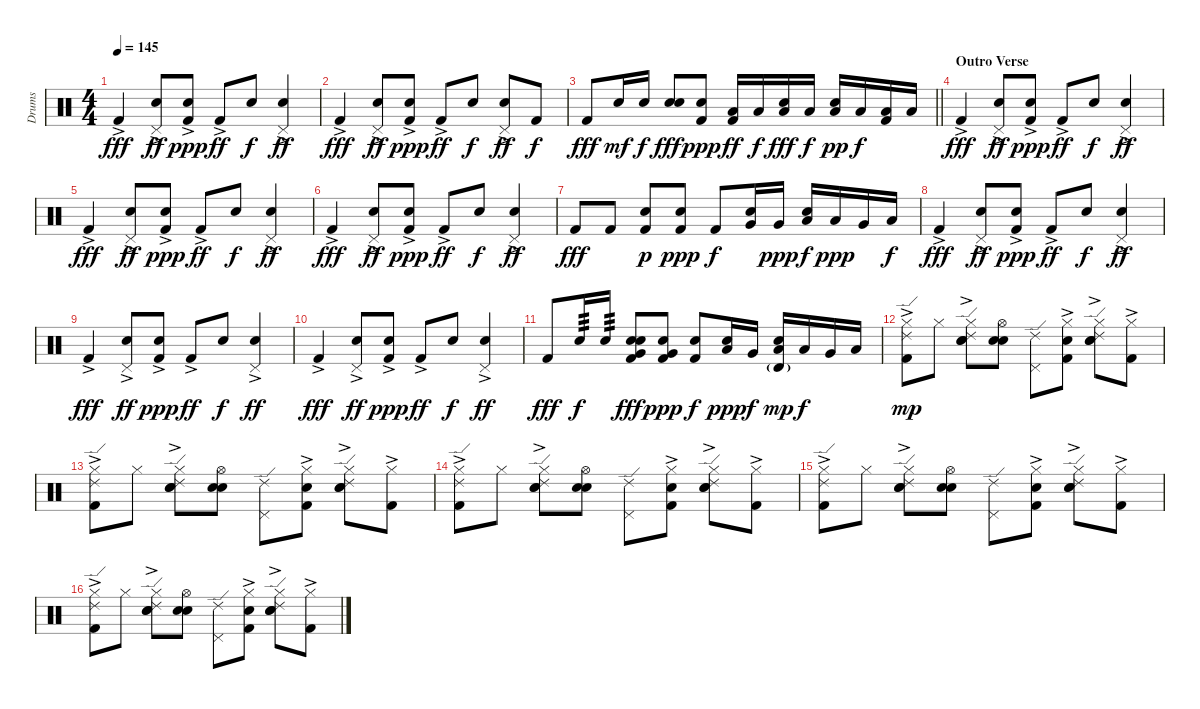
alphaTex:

\track ("Drums" "Drums") {instrument percussion}
\staff {score}
\articulation defaults
\ts (4 4)
\tempo 145
\clef neutral
\ks c "Kick (hit) 2"{ac}.4{dy fff}
("Pedal Hi-Hat (hit)" "Hand Clap (hit)"{ac}).8{dy ff} ("Kick (hit) 2"{ac} "Hand Clap (hit)").8{dy ppp} "Kick (hit) 2"{ac}.8{dy ff} "Hand Clap (hit)".8{dy f} ("Pedal Hi-Hat (hit)" "Hand Clap (hit)"{ac}).4{dy ff} |
"Kick (hit) 2"{ac}.4{dy fff} ("Pedal Hi-Hat (hit)" "Hand Clap (hit)"{ac}).8{dy ff} ("Kick (hit) 2"{ac} "Hand Clap (hit)").8{dy ppp} "Kick (hit) 2"{ac}.8{dy ff} "Hand Clap (hit)".8{dy f} ("Pedal Hi-Hat (hit)" "Hand Clap (hit)"{ac}).8{dy ff} "Kick (hit) 2".8{dy f} |
\barLineRight lightlight "Kick (hit) 2".8{dy fff} "Electric Snare (hit)".16{dy mf} "Electric Snare (hit)".16{dy f}
("Hand Clap (hit)" "Electric Snare (hit)").8{dy fff} ("Kick (hit) 2" "Hand Clap (hit)").8{dy ppp} ("Kick (hit) 2" "Low Tom (hit)").16{dy ff} "Low Tom (hit)".16{dy f} ("Hand Clap (hit)" "Low Tom (hit)").16{dy fff} "Low Tom (hit)".16{dy f} ("Hand Clap (hit)" "Low Tom (hit)").16{dy pp} "Low Tom (hit)".16{dy f} ("Kick (hit) 2" "Low Tom (hit)").16 "Low Tom (hit)".16 |
\section ("" "Outro Verse")
"Kick (hit) 2"{ac}.4{dy fff} ("Pedal Hi-Hat (hit)" "Hand Clap (hit)"{ac}).8{dy ff} ("Kick (hit) 2"{ac} "Hand Clap (hit)").8{dy ppp} "Kick (hit) 2"{ac}.8{dy ff} "Hand Clap (hit)".8{dy f} ("Pedal Hi-Hat (hit)" "Hand Clap (hit)"{ac}).4{dy ff} |
"Kick (hit) 2"{ac}.4{dy fff} ("Pedal Hi-Hat (hit)" "Hand Clap (hit)"{ac}).8{dy ff} ("Kick (hit) 2"{ac} "Hand Clap (hit)").8{dy ppp} "Kick (hit) 2"{ac}.8{dy ff} "Hand Clap (hit)".8{dy f} ("Pedal Hi-Hat (hit)" "Hand Clap (hit)"{ac}).4{dy ff} |
"Kick (hit) 2"{ac}.4{dy fff} ("Pedal Hi-Hat (hit)" "Hand Clap (hit)"{ac}).8{dy ff} ("Kick (hit) 2"{ac} "Hand Clap (hit)").8{dy ppp} "Kick (hit) 2"{ac}.8{dy ff} "Hand Clap (hit)".8{dy f} ("Pedal Hi-Hat (hit)" "Hand Clap (hit)"{ac}).4{dy ff} |
"Kick (hit) 2".8{dy fff} "Kick (hit) 2".8 ("Kick (hit) 2" "Hand Clap (hit)").8{dy p} ("Kick (hit) 2" "Hand Clap (hit)").8{dy ppp} "Kick (hit) 2".8{dy f} ("Very Low Tom (hit)" "Hand Clap (hit)").16 "Very Low Tom (hit)".16{dy ppp} ("Low Tom (hit)" "Hand Clap (hit)").16{dy f} "Low Tom (hit)".16{dy ppp} "Very Low Tom (hit)".16 "Low Floor Tom (hit)".16{dy f} |
"Kick (hit) 2"{ac}.4{dy fff} ("Pedal Hi-Hat (hit)" "Hand Clap (hit)"{ac}).8{dy ff} ("Kick (hit) 2"{ac} "Hand Clap (hit)").8{dy ppp} "Kick (hit) 2"{ac}.8{dy ff} "Hand Clap (hit)".8{dy f} ("Pedal Hi-Hat (hit)" "Hand Clap (hit)"{ac}).4{dy ff} |
"Kick (hit) 2"{ac}.4{dy fff} ("Pedal Hi-Hat (hit)" "Hand Clap (hit)"{ac}).8{dy ff} ("Kick (hit) 2"{ac} "Hand Clap (hit)").8{dy ppp} "Kick (hit) 2"{ac}.8{dy ff} "Hand Clap (hit)".8{dy f} ("Pedal Hi-Hat (hit)" "Hand Clap (hit)"{ac}).4{dy ff} |
"Kick (hit) 2"{ac}.4{dy fff} ("Pedal Hi-Hat (hit)" "Hand Clap (hit)"{ac}).8{dy ff} ("Kick (hit) 2"{ac} "Hand Clap (hit)").8{dy ppp} "Kick (hit) 2"{ac}.8{dy ff} "Hand Clap (hit)".8{dy f} ("Pedal Hi-Hat (hit)" "Hand Clap (hit)"{ac}).4{dy ff} |
"Kick (hit) 2".8{dy fff} "Electric Snare (hit)".16{tp 3 dy f} "Electric Snare (hit)".16{tp 3} ("Kick (hit) 2" "Very Low Tom (hit)" "Hand Clap (hit)" "Electric Snare (hit)").8{dy fff} ("Kick (hit) 2" "Very Low Tom (hit)" "Hand Clap (hit)").8{dy ppp} ("Kick (hit) 2" "Electric Snare (hit)").8{dy f} ("Low Tom (hit)" "Hand Clap (hit)").16{dy ppp} "Very Low Tom (hit)".16{dy f} ("Low Floor Tom (hit)" "Hand Clap (hit)" "Timbale high (hit)"{g}).16{dy mp} "Low Floor Tom (hit)".16{dy f} "Very Low Tom (hit)".16 "Low Floor Tom (hit)".16 |
("Kick (hit) 2"{ac} "Ride (edge) 2" "Hi-Hat (closed)").8{dy mp} "Hi-Hat (closed)".8 ("Ride (edge) 2" "Hand Clap (hit)" "Electric Snare (hit)"{ac} "Hi-Hat (closed)").8 ("Hand Clap (hit)" "Electric Snare (hit)" "Hi-Hat (open)").8 ("Ride (edge) 2" "Pedal Hi-Hat (hit)").8 ("Kick (hit) 2"{ac} "Hand Clap (hit)" "Hi-Hat (closed)").8 ("Ride (edge) 2" "Hand Clap (hit)" "Electric Snare (hit)"{ac} "Hi-Hat (closed)").8 ("Kick (hit) 2"{ac} "Hi-Hat (closed)").8 |
("Kick (hit) 2"{ac} "Ride (edge) 2" "Hi-Hat (closed)").8 "Hi-Hat (closed)".8 ("Ride (edge) 2" "Hand Clap (hit)" "Electric Snare (hit)"{ac} "Hi-Hat (closed)").8 ("Hand Clap (hit)" "Electric Snare (hit)" "Hi-Hat (open)").8 ("Ride (edge) 2" "Pedal Hi-Hat (hit)").8 ("Kick (hit) 2"{ac} "Hand Clap (hit)" "Hi-Hat (closed)").8 ("Ride (edge) 2" "Hand Clap (hit)" "Electric Snare (hit)"{ac} "Hi-Hat (closed)").8 ("Kick (hit) 2"{ac} "Hi-Hat (closed)").8 |
("Kick (hit) 2"{ac} "Ride (edge) 2" "Hi-Hat (closed)").8 "Hi-Hat (closed)".8 ("Ride (edge) 2" "Hand Clap (hit)" "Electric Snare (hit)"{ac} "Hi-Hat (closed)").8 ("Hand Clap (hit)" "Electric Snare (hit)" "Hi-Hat (open)").8 ("Ride (edge) 2" "Pedal Hi-Hat (hit)").8 ("Kick (hit) 2"{ac} "Hand Clap (hit)" "Hi-Hat (closed)").8 ("Ride (edge) 2" "Hand Clap (hit)" "Electric Snare (hit)"{ac} "Hi-Hat (closed)").8 ("Kick (hit) 2"{ac} "Hi-Hat (closed)").8 |
("Kick (hit) 2"{ac} "Ride (edge) 2" "Hi-Hat (closed)").8 "Hi-Hat (closed)".8 ("Ride (edge) 2" "Hand Clap (hit)" "Electric Snare (hit)"{ac} "Hi-Hat (closed)").8 ("Hand Clap (hit)" "Electric Snare (hit)" "Hi-Hat (open)").8 ("Ride (edge) 2" "Pedal Hi-Hat (hit)").8 ("Kick (hit) 2"{ac} "Hand Clap (hit)" "Hi-Hat (closed)").8 ("Ride (edge) 2" "Hand Clap (hit)" "Electric Snare (hit)"{ac} "Hi-Hat (closed)").8 ("Kick (hit) 2"{ac} "Hi-Hat (closed)").8 |
("Kick (hit) 2"{ac} "Ride (edge) 2" "Hi-Hat (closed)").8 "Hi-Hat (closed)".8 ("Ride (edge) 2" "Hand Clap (hit)" "Electric Snare (hit)"{ac} "Hi-Hat (closed)").8 ("Hand Clap (hit)" "Electric Snare (hit)" "Hi-Hat (open)").8 ("Ride (edge) 2" "Pedal Hi-Hat (hit)").8 ("Kick (hit) 2"{ac} "Hand Clap (hit)" "Hi-Hat (closed)").8 ("Ride (edge) 2" "Hand Clap (hit)" "Electric Snare (hit)"{ac} "Hi-Hat (closed)").8 ("Kick (hit) 2"{ac} "Hi-Hat (closed)").8
